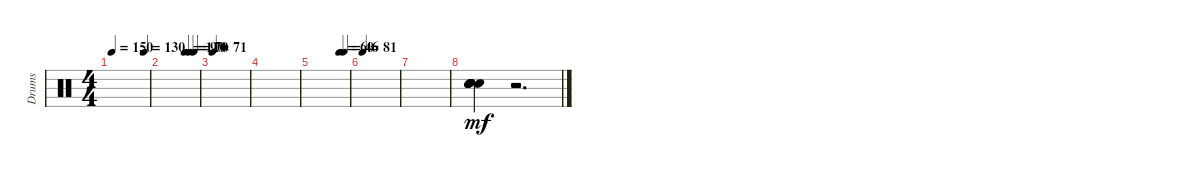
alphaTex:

\track ("Drums" "Drums") {instrument percussion}
\staff {score}
\articulation defaults
\ts (4 4)
\tempo 150
\tempo (130 0.875)
\clef neutral
\ks c
|
\tempo (110 0.625)
\tempo (90 0.75)
\tempo (70 0.875)
|
\tempo 71
|
|
\tempo (60 0.75)
\tempo (46 0.875)
|
\tempo 81
|
|
("Snare (hit) 2" "Snare (hit) 2" "Snare (hit) 2" "Electric Snare (hit)" "Electric Snare (hit)" "Electric Snare (hit)").4{dy mf} r.2{d}
